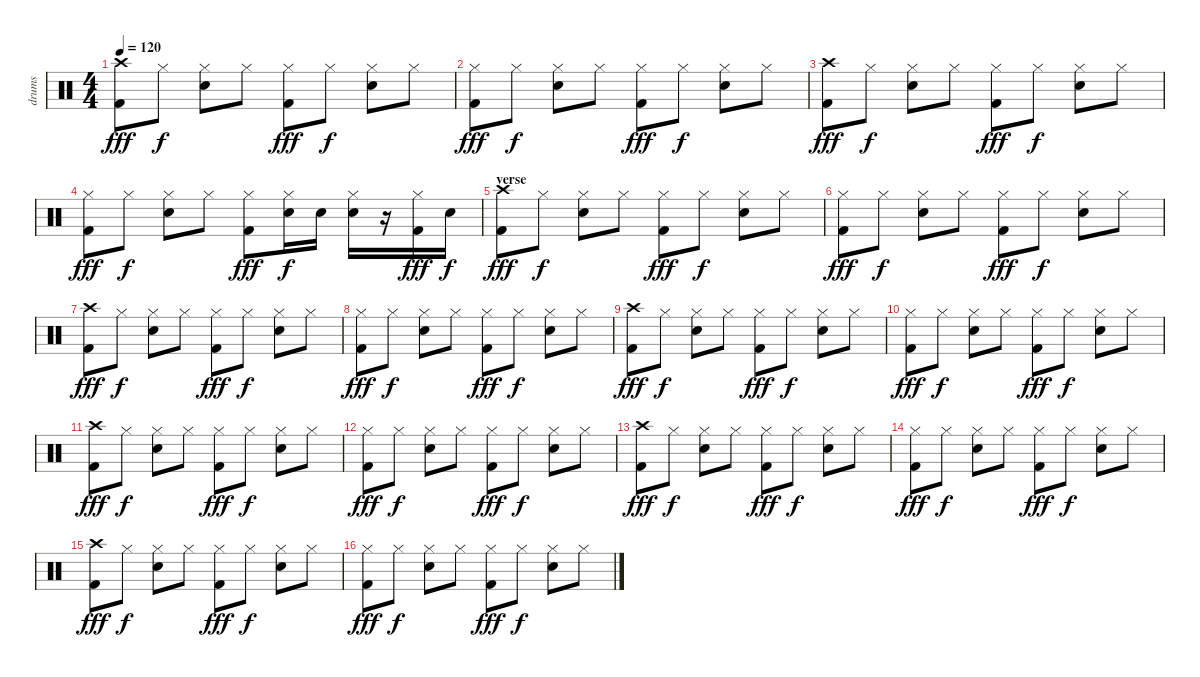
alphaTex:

\track ("drums" "drums") {instrument percussion}
\staff {score}
\articulation defaults
\ts (4 4)
\tempo 120
\clef neutral
\ks c
("Crash high (hit)" "Kick (hit) 2").8{dy fff} "Hi-Hat (closed)".8{dy f} ("Hi-Hat (closed)" "Snare (hit) 2").8 "Hi-Hat (closed)".8 ("Hi-Hat (closed)" "Kick (hit) 2").8{dy fff} "Hi-Hat (closed)".8{dy f} ("Hi-Hat (closed)" "Snare (hit) 2").8 "Hi-Hat (closed)".8 |
("Hi-Hat (closed)" "Kick (hit) 2").8{dy fff} "Hi-Hat (closed)".8{dy f} ("Hi-Hat (closed)" "Snare (hit) 2").8 "Hi-Hat (closed)".8 ("Hi-Hat (closed)" "Kick (hit) 2").8{dy fff} "Hi-Hat (closed)".8{dy f} ("Hi-Hat (closed)" "Snare (hit) 2").8 "Hi-Hat (closed)".8 |
("Crash high (hit)" "Kick (hit) 2").8{dy fff} "Hi-Hat (closed)".8{dy f} ("Hi-Hat (closed)" "Snare (hit) 2").8 "Hi-Hat (closed)".8 ("Hi-Hat (closed)" "Kick (hit) 2").8{dy fff} "Hi-Hat (closed)".8{dy f} ("Hi-Hat (closed)" "Snare (hit) 2").8 "Hi-Hat (closed)".8 |
("Hi-Hat (closed)" "Kick (hit) 2").8{dy fff} "Hi-Hat (closed)".8{dy f} ("Hi-Hat (closed)" "Snare (hit) 2").8 "Hi-Hat (closed)".8 ("Hi-Hat (closed)" "Kick (hit) 2").8{dy fff} ("Hi-Hat (closed)" "Snare (hit) 2").16{dy f} "Snare (hit) 2".16 ("Hi-Hat (closed)" "Snare (hit) 2").16 r.16 ("Hi-Hat (closed)" "Kick (hit) 2").16{dy fff} "Snare (hit) 2".16{dy f} |
\section ("" "verse")
("Crash high (hit)" "Kick (hit) 2").8{dy fff} "Hi-Hat (closed)".8{dy f} ("Hi-Hat (closed)" "Snare (hit) 2").8 "Hi-Hat (closed)".8 ("Hi-Hat (closed)" "Kick (hit) 2").8{dy fff} "Hi-Hat (closed)".8{dy f} ("Hi-Hat (closed)" "Snare (hit) 2").8 "Hi-Hat (closed)".8 |
("Hi-Hat (closed)" "Kick (hit) 2").8{dy fff} "Hi-Hat (closed)".8{dy f} ("Hi-Hat (closed)" "Snare (hit) 2").8 "Hi-Hat (closed)".8 ("Hi-Hat (closed)" "Kick (hit) 2").8{dy fff} "Hi-Hat (closed)".8{dy f} ("Hi-Hat (closed)" "Snare (hit) 2").8 "Hi-Hat (closed)".8 |
("Crash high (hit)" "Kick (hit) 2").8{dy fff} "Hi-Hat (closed)".8{dy f} ("Hi-Hat (closed)" "Snare (hit) 2").8 "Hi-Hat (closed)".8 ("Hi-Hat (closed)" "Kick (hit) 2").8{dy fff} "Hi-Hat (closed)".8{dy f} ("Hi-Hat (closed)" "Snare (hit) 2").8 "Hi-Hat (closed)".8 |
("Hi-Hat (closed)" "Kick (hit) 2").8{dy fff} "Hi-Hat (closed)".8{dy f} ("Hi-Hat (closed)" "Snare (hit) 2").8 "Hi-Hat (closed)".8 ("Hi-Hat (closed)" "Kick (hit) 2").8{dy fff} "Hi-Hat (closed)".8{dy f} ("Hi-Hat (closed)" "Snare (hit) 2").8 "Hi-Hat (closed)".8 |
("Crash high (hit)" "Kick (hit) 2").8{dy fff} "Hi-Hat (closed)".8{dy f} ("Hi-Hat (closed)" "Snare (hit) 2").8 "Hi-Hat (closed)".8 ("Hi-Hat (closed)" "Kick (hit) 2").8{dy fff} "Hi-Hat (closed)".8{dy f} ("Hi-Hat (closed)" "Snare (hit) 2").8 "Hi-Hat (closed)".8 |
("Hi-Hat (closed)" "Kick (hit) 2").8{dy fff} "Hi-Hat (closed)".8{dy f} ("Hi-Hat (closed)" "Snare (hit) 2").8 "Hi-Hat (closed)".8 ("Hi-Hat (closed)" "Kick (hit) 2").8{dy fff} "Hi-Hat (closed)".8{dy f} ("Hi-Hat (closed)" "Snare (hit) 2").8 "Hi-Hat (closed)".8 |
("Crash high (hit)" "Kick (hit) 2").8{dy fff} "Hi-Hat (closed)".8{dy f} ("Hi-Hat (closed)" "Snare (hit) 2").8 "Hi-Hat (closed)".8 ("Hi-Hat (closed)" "Kick (hit) 2").8{dy fff} "Hi-Hat (closed)".8{dy f} ("Hi-Hat (closed)" "Snare (hit) 2").8 "Hi-Hat (closed)".8 |
("Hi-Hat (closed)" "Kick (hit) 2").8{dy fff} "Hi-Hat (closed)".8{dy f} ("Hi-Hat (closed)" "Snare (hit) 2").8 "Hi-Hat (closed)".8 ("Hi-Hat (closed)" "Kick (hit) 2").8{dy fff} "Hi-Hat (closed)".8{dy f} ("Hi-Hat (closed)" "Snare (hit) 2").8 "Hi-Hat (closed)".8 |
("Crash high (hit)" "Kick (hit) 2").8{dy fff} "Hi-Hat (closed)".8{dy f} ("Hi-Hat (closed)" "Snare (hit) 2").8 "Hi-Hat (closed)".8 ("Hi-Hat (closed)" "Kick (hit) 2").8{dy fff} "Hi-Hat (closed)".8{dy f} ("Hi-Hat (closed)" "Snare (hit) 2").8 "Hi-Hat (closed)".8 |
("Hi-Hat (closed)" "Kick (hit) 2").8{dy fff} "Hi-Hat (closed)".8{dy f} ("Hi-Hat (closed)" "Snare (hit) 2").8 "Hi-Hat (closed)".8 ("Hi-Hat (closed)" "Kick (hit) 2").8{dy fff} "Hi-Hat (closed)".8{dy f} ("Hi-Hat (closed)" "Snare (hit) 2").8 "Hi-Hat (closed)".8 |
("Crash high (hit)" "Kick (hit) 2").8{dy fff} "Hi-Hat (closed)".8{dy f} ("Hi-Hat (closed)" "Snare (hit) 2").8 "Hi-Hat (closed)".8 ("Hi-Hat (closed)" "Kick (hit) 2").8{dy fff} "Hi-Hat (closed)".8{dy f} ("Hi-Hat (closed)" "Snare (hit) 2").8 "Hi-Hat (closed)".8 |
("Hi-Hat (closed)" "Kick (hit) 2").8{dy fff} "Hi-Hat (closed)".8{dy f} ("Hi-Hat (closed)" "Snare (hit) 2").8 "Hi-Hat (closed)".8 ("Hi-Hat (closed)" "Kick (hit) 2").8{dy fff} "Hi-Hat (closed)".8{dy f} ("Hi-Hat (closed)" "Snare (hit) 2").8 "Hi-Hat (closed)".8
